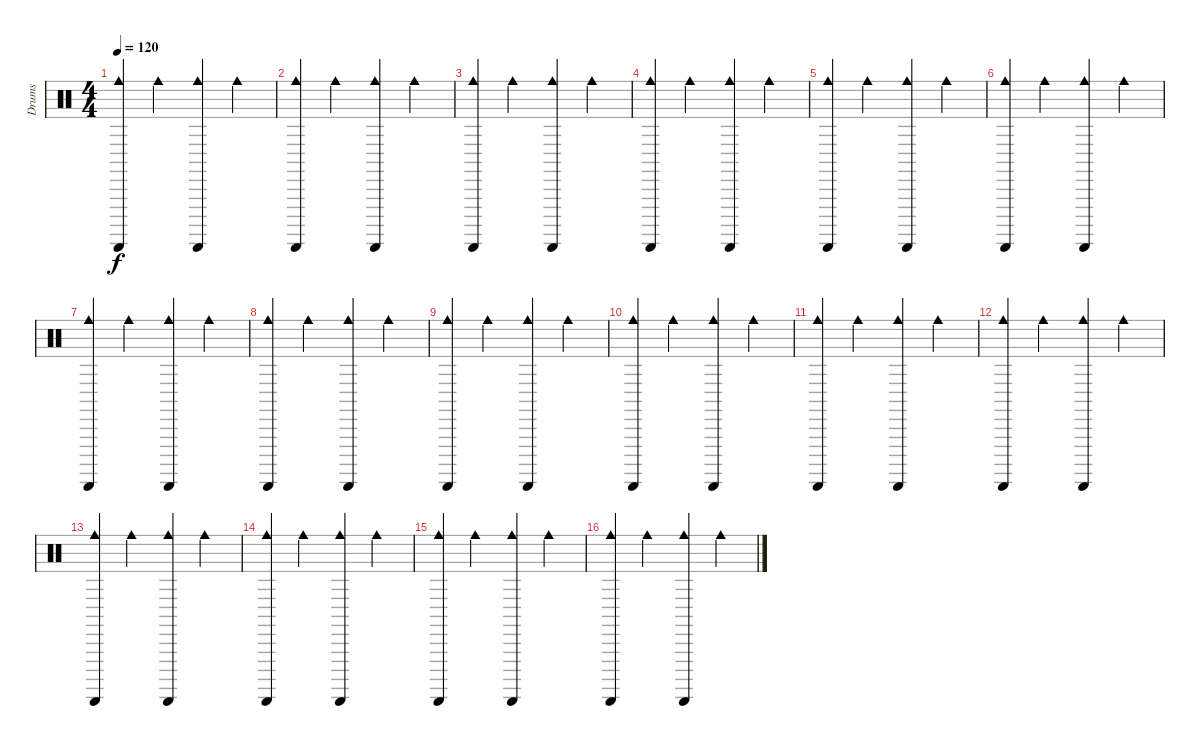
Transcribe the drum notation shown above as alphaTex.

\track ("Drums" "Drums") {instrument percussion}
\staff {score}
\articulation defaults
\ts (4 4)
\tempo 120
\clef neutral
\ks c
("Cowbell medium (hit)" "Guiro (scrap-return)").4{dy f} "Cowbell medium (hit)".4 ("Cowbell medium (hit)" "Guiro (scrap-return)").4 "Cowbell medium (hit)".4 |
("Cowbell medium (hit)" "Guiro (scrap-return)").4 "Cowbell medium (hit)".4 ("Cowbell medium (hit)" "Guiro (scrap-return)").4 "Cowbell medium (hit)".4 |
("Cowbell medium (hit)" "Guiro (scrap-return)").4 "Cowbell medium (hit)".4 ("Cowbell medium (hit)" "Guiro (scrap-return)").4 "Cowbell medium (hit)".4 |
("Cowbell medium (hit)" "Guiro (scrap-return)").4 "Cowbell medium (hit)".4 ("Cowbell medium (hit)" "Guiro (scrap-return)").4 "Cowbell medium (hit)".4 |
("Cowbell medium (hit)" "Guiro (scrap-return)").4 "Cowbell medium (hit)".4 ("Cowbell medium (hit)" "Guiro (scrap-return)").4 "Cowbell medium (hit)".4 |
("Cowbell medium (hit)" "Guiro (scrap-return)").4 "Cowbell medium (hit)".4 ("Cowbell medium (hit)" "Guiro (scrap-return)").4 "Cowbell medium (hit)".4 |
("Cowbell medium (hit)" "Guiro (scrap-return)").4 "Cowbell medium (hit)".4 ("Cowbell medium (hit)" "Guiro (scrap-return)").4 "Cowbell medium (hit)".4 |
("Cowbell medium (hit)" "Guiro (scrap-return)").4 "Cowbell medium (hit)".4 ("Cowbell medium (hit)" "Guiro (scrap-return)").4 "Cowbell medium (hit)".4 |
("Cowbell medium (hit)" "Guiro (scrap-return)").4 "Cowbell medium (hit)".4 ("Cowbell medium (hit)" "Guiro (scrap-return)").4 "Cowbell medium (hit)".4 |
("Cowbell medium (hit)" "Guiro (scrap-return)").4 "Cowbell medium (hit)".4 ("Cowbell medium (hit)" "Guiro (scrap-return)").4 "Cowbell medium (hit)".4 |
("Cowbell medium (hit)" "Guiro (scrap-return)").4 "Cowbell medium (hit)".4 ("Cowbell medium (hit)" "Guiro (scrap-return)").4 "Cowbell medium (hit)".4 |
("Cowbell medium (hit)" "Guiro (scrap-return)").4 "Cowbell medium (hit)".4 ("Cowbell medium (hit)" "Guiro (scrap-return)").4 "Cowbell medium (hit)".4 |
("Cowbell medium (hit)" "Guiro (scrap-return)").4 "Cowbell medium (hit)".4 ("Cowbell medium (hit)" "Guiro (scrap-return)").4 "Cowbell medium (hit)".4 |
("Cowbell medium (hit)" "Guiro (scrap-return)").4 "Cowbell medium (hit)".4 ("Cowbell medium (hit)" "Guiro (scrap-return)").4 "Cowbell medium (hit)".4 |
("Cowbell medium (hit)" "Guiro (scrap-return)").4 "Cowbell medium (hit)".4 ("Cowbell medium (hit)" "Guiro (scrap-return)").4 "Cowbell medium (hit)".4 |
("Cowbell medium (hit)" "Guiro (scrap-return)").4 "Cowbell medium (hit)".4 ("Cowbell medium (hit)" "Guiro (scrap-return)").4 "Cowbell medium (hit)".4
